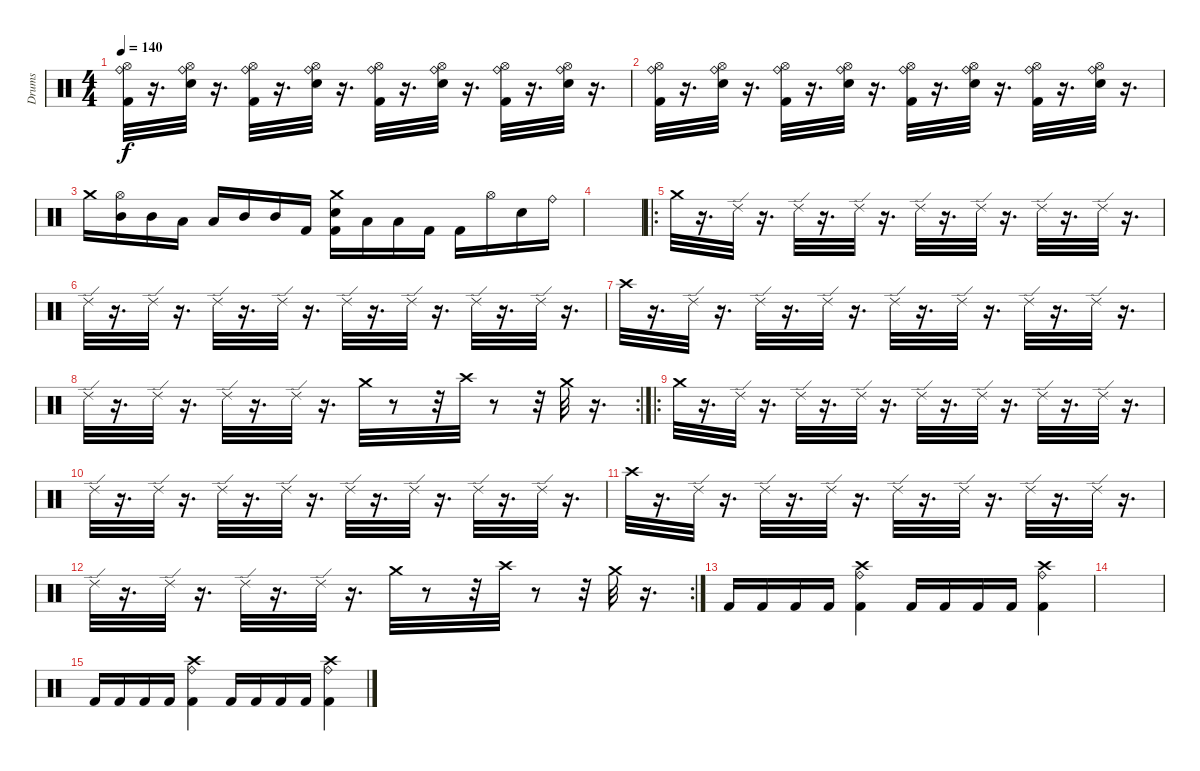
\track ("Drums" "Drums") {instrument percussion}
\staff {score}
\articulation defaults
\ts (4 4)
\tempo 140
\clef neutral
\ks c
("Hi-Hat (open)" "Kick (hit) 2" "Ride (bell)").32{dy f} r.16{d} ("Hi-Hat (open)" "Electric Snare (hit)" "Ride (bell)").32 r.16{d} ("Hi-Hat (open)" "Kick (hit) 2" "Ride (bell)").32 r.16{d} ("Hi-Hat (open)" "Electric Snare (hit)" "Ride (bell)").32 r.16{d} ("Hi-Hat (open)" "Kick (hit) 2" "Ride (bell)").32 r.16{d} ("Hi-Hat (open)" "Electric Snare (hit)" "Ride (bell)").32 r.16{d} ("Hi-Hat (open)" "Kick (hit) 2" "Ride (bell)").32 r.16{d} ("Hi-Hat (open)" "Electric Snare (hit)" "Ride (bell)").32 r.16{d} |
("Hi-Hat (open)" "Kick (hit) 2" "Ride (bell)").32 r.16{d} ("Hi-Hat (open)" "Electric Snare (hit)" "Ride (bell)").32 r.16{d} ("Hi-Hat (open)" "Kick (hit) 2" "Ride (bell)").32 r.16{d} ("Hi-Hat (open)" "Electric Snare (hit)" "Ride (bell)").32 r.16{d} ("Hi-Hat (open)" "Kick (hit) 2" "Ride (bell)").32 r.16{d} ("Hi-Hat (open)" "Electric Snare (hit)" "Ride (bell)").32 r.16{d} ("Hi-Hat (open)" "Kick (hit) 2" "Ride (bell)").32 r.16{d} ("Hi-Hat (open)" "Electric Snare (hit)" "Ride (bell)").32 r.16{d} |
"Crash medium (hit)".16 ("Hi-Hat (open)" "Mid Tom (hit)").16 "Mid Tom (hit)".16 "Low Tom (hit)".16 "Low Tom (hit)".16 "Mid Tom (hit)".16 "Mid Tom (hit)".16 "Kick (hit) 2".16 ("Crash medium (hit)" "Electric Snare (hit)" "Kick (hit) 2").16 "Low Tom (hit)".16 "Low Tom (hit)".16 "Kick (hit) 2".16 "Kick (hit) 2".16 "Hi-Hat (open)".16 "Electric Snare (hit)".16 "Ride (bell)".16 |
|
\ro "Crash medium (hit)".32
r.16{d} "Ride (edge) 2".32 r.16{d} "Ride (edge) 2".32 r.16{d} "Ride (edge) 2".32 r.16{d} "Ride (edge) 2".32 r.16{d} "Ride (edge) 2".32 r.16{d} "Ride (edge) 2".32 r.16{d} "Ride (edge) 2".32 r.16{d} |
"Ride (edge) 2".32 r.16{d} "Ride (edge) 2".32 r.16{d} "Ride (edge) 2".32 r.16{d} "Ride (edge) 2".32 r.16{d} "Ride (edge) 2".32 r.16{d} "Ride (edge) 2".32 r.16{d} "Ride (edge) 2".32 r.16{d} "Ride (edge) 2".32 r.16{d} |
"Crash high (hit)".32 r.16{d} "Ride (edge) 2".32 r.16{d} "Ride (edge) 2".32 r.16{d} "Ride (edge) 2".32 r.16{d} "Ride (edge) 2".32 r.16{d} "Ride (edge) 2".32 r.16{d} "Ride (edge) 2".32 r.16{d} "Ride (edge) 2".32 r.16{d} |
\rc 2 "Ride (edge) 2".32
r.16{d} "Ride (edge) 2".32 r.16{d} "Ride (edge) 2".32 r.16{d} "Ride (edge) 2".32 r.16{d} "Crash medium (hit)".32 r.8 r.32 "Crash high (hit)".32 r.8 r.32 "Crash medium (hit)".32 r.16{d} |
\ro "Crash medium (hit)".32
r.16{d} "Ride (edge) 2".32 r.16{d} "Ride (edge) 2".32 r.16{d} "Ride (edge) 2".32 r.16{d} "Ride (edge) 2".32 r.16{d} "Ride (edge) 2".32 r.16{d} "Ride (edge) 2".32 r.16{d} "Ride (edge) 2".32 r.16{d} |
"Ride (edge) 2".32 r.16{d} "Ride (edge) 2".32 r.16{d} "Ride (edge) 2".32 r.16{d} "Ride (edge) 2".32 r.16{d} "Ride (edge) 2".32 r.16{d} "Ride (edge) 2".32 r.16{d} "Ride (edge) 2".32 r.16{d} "Ride (edge) 2".32 r.16{d} |
"Crash high (hit)".32 r.16{d} "Ride (edge) 2".32 r.16{d} "Ride (edge) 2".32 r.16{d} "Ride (edge) 2".32 r.16{d} "Ride (edge) 2".32 r.16{d} "Ride (edge) 2".32 r.16{d} "Ride (edge) 2".32 r.16{d} "Ride (edge) 2".32 r.16{d} |
\rc 2 "Ride (edge) 2".32
r.16{d} "Ride (edge) 2".32 r.16{d} "Ride (edge) 2".32 r.16{d} "Ride (edge) 2".32 r.16{d} "Crash medium (hit)".32 r.8 r.32 "Crash high (hit)".32 r.8 r.32 "Crash medium (hit)".32 r.16{d} |
"Kick (hit) 2".16 "Kick (hit) 2".16 "Kick (hit) 2".16 "Kick (hit) 2".16 ("Crash high (hit)" "Ride (bell)" "Kick (hit) 2").4 "Kick (hit) 2".16 "Kick (hit) 2".16 "Kick (hit) 2".16 "Kick (hit) 2".16 ("Crash high (hit)" "Ride (bell)" "Kick (hit) 2").4 |
|
"Kick (hit) 2".16 "Kick (hit) 2".16 "Kick (hit) 2".16 "Kick (hit) 2".16 ("Crash high (hit)" "Ride (bell)" "Kick (hit) 2").4 "Kick (hit) 2".16 "Kick (hit) 2".16 "Kick (hit) 2".16 "Kick (hit) 2".16 ("Crash high (hit)" "Ride (bell)" "Kick (hit) 2").4
